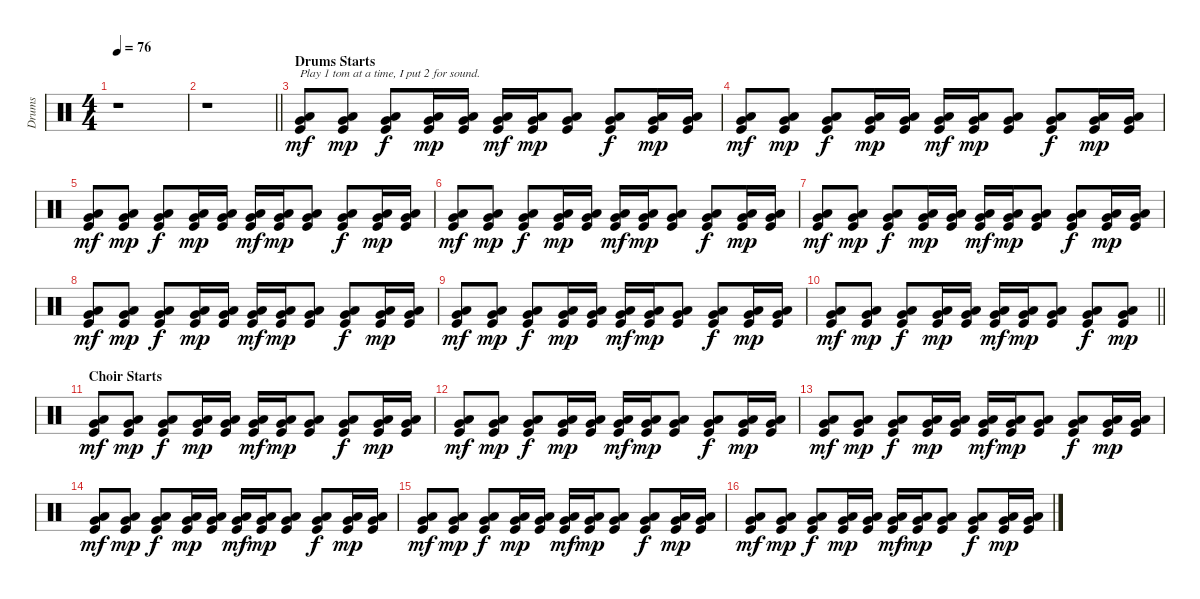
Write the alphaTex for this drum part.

\track ("Drums" "Drums") {instrument percussion}
\staff {score}
\articulation defaults
\ts (4 4)
\tempo 76
\clef neutral
\ks c
r.1{dy mf} |
\barLineRight lightlight
r.1 |
\section ("" "Drums Starts")
("Kick (hit)" "Low Floor Tom (hit)" "Very Low Tom (hit)").8{txt "Play 1 tom at a time, I put 2 for sound."} ("Kick (hit)" "Low Floor Tom (hit)" "Very Low Tom (hit)").8{dy mp} ("Kick (hit)" "Very Low Tom (hit)" "Low Tom (hit)").8{dy f} ("Kick (hit)" "Low Floor Tom (hit)" "Very Low Tom (hit)").16{dy mp} ("Kick (hit)" "Very Low Tom (hit)" "Low Tom (hit)").16 ("Kick (hit)" "Low Floor Tom (hit)" "Very Low Tom (hit)").16{dy mf} ("Kick (hit)" "Very Low Tom (hit)" "Low Tom (hit)").16{dy mp} ("Kick (hit)" "Low Floor Tom (hit)" "Very Low Tom (hit)").8 ("Kick (hit)" "Very Low Tom (hit)" "Low Tom (hit)").8{dy f} ("Kick (hit)" "Low Floor Tom (hit)" "Very Low Tom (hit)").16{dy mp} ("Kick (hit)" "Very Low Tom (hit)" "Low Tom (hit)").16 |
("Kick (hit)" "Low Floor Tom (hit)" "Very Low Tom (hit)").8{dy mf} ("Kick (hit)" "Low Floor Tom (hit)" "Very Low Tom (hit)").8{dy mp} ("Kick (hit)" "Very Low Tom (hit)" "Low Tom (hit)").8{dy f} ("Kick (hit)" "Low Floor Tom (hit)" "Very Low Tom (hit)").16{dy mp} ("Kick (hit)" "Very Low Tom (hit)" "Low Tom (hit)").16 ("Kick (hit)" "Low Floor Tom (hit)" "Very Low Tom (hit)").16{dy mf} ("Kick (hit)" "Very Low Tom (hit)" "Low Tom (hit)").16{dy mp} ("Kick (hit)" "Low Floor Tom (hit)" "Very Low Tom (hit)").8 ("Kick (hit)" "Very Low Tom (hit)" "Low Tom (hit)").8{dy f} ("Kick (hit)" "Low Floor Tom (hit)" "Very Low Tom (hit)").16{dy mp} ("Kick (hit)" "Very Low Tom (hit)" "Low Tom (hit)").16 |
("Kick (hit)" "Low Floor Tom (hit)" "Very Low Tom (hit)").8{dy mf} ("Kick (hit)" "Low Floor Tom (hit)" "Very Low Tom (hit)").8{dy mp} ("Kick (hit)" "Very Low Tom (hit)" "Low Tom (hit)").8{dy f} ("Kick (hit)" "Low Floor Tom (hit)" "Very Low Tom (hit)").16{dy mp} ("Kick (hit)" "Very Low Tom (hit)" "Low Tom (hit)").16 ("Kick (hit)" "Low Floor Tom (hit)" "Very Low Tom (hit)").16{dy mf} ("Kick (hit)" "Very Low Tom (hit)" "Low Tom (hit)").16{dy mp} ("Kick (hit)" "Low Floor Tom (hit)" "Very Low Tom (hit)").8 ("Kick (hit)" "Very Low Tom (hit)" "Low Tom (hit)").8{dy f} ("Kick (hit)" "Low Floor Tom (hit)" "Very Low Tom (hit)").16{dy mp} ("Kick (hit)" "Very Low Tom (hit)" "Low Tom (hit)").16 |
("Kick (hit)" "Low Floor Tom (hit)" "Very Low Tom (hit)").8{dy mf} ("Kick (hit)" "Low Floor Tom (hit)" "Very Low Tom (hit)").8{dy mp} ("Kick (hit)" "Very Low Tom (hit)" "Low Tom (hit)").8{dy f} ("Kick (hit)" "Low Floor Tom (hit)" "Very Low Tom (hit)").16{dy mp} ("Kick (hit)" "Very Low Tom (hit)" "Low Tom (hit)").16 ("Kick (hit)" "Low Floor Tom (hit)" "Very Low Tom (hit)").16{dy mf} ("Kick (hit)" "Very Low Tom (hit)" "Low Tom (hit)").16{dy mp} ("Kick (hit)" "Low Floor Tom (hit)" "Very Low Tom (hit)").8 ("Kick (hit)" "Very Low Tom (hit)" "Low Tom (hit)").8{dy f} ("Kick (hit)" "Low Floor Tom (hit)" "Very Low Tom (hit)").16{dy mp} ("Kick (hit)" "Very Low Tom (hit)" "Low Tom (hit)").16 |
("Kick (hit)" "Low Floor Tom (hit)" "Very Low Tom (hit)").8{dy mf} ("Kick (hit)" "Low Floor Tom (hit)" "Very Low Tom (hit)").8{dy mp} ("Kick (hit)" "Very Low Tom (hit)" "Low Tom (hit)").8{dy f} ("Kick (hit)" "Low Floor Tom (hit)" "Very Low Tom (hit)").16{dy mp} ("Kick (hit)" "Very Low Tom (hit)" "Low Tom (hit)").16 ("Kick (hit)" "Low Floor Tom (hit)" "Very Low Tom (hit)").16{dy mf} ("Kick (hit)" "Very Low Tom (hit)" "Low Tom (hit)").16{dy mp} ("Kick (hit)" "Low Floor Tom (hit)" "Very Low Tom (hit)").8 ("Kick (hit)" "Very Low Tom (hit)" "Low Tom (hit)").8{dy f} ("Kick (hit)" "Low Floor Tom (hit)" "Very Low Tom (hit)").16{dy mp} ("Kick (hit)" "Very Low Tom (hit)" "Low Tom (hit)").16 |
("Kick (hit)" "Low Floor Tom (hit)" "Very Low Tom (hit)").8{dy mf} ("Kick (hit)" "Low Floor Tom (hit)" "Very Low Tom (hit)").8{dy mp} ("Kick (hit)" "Very Low Tom (hit)" "Low Tom (hit)").8{dy f} ("Kick (hit)" "Low Floor Tom (hit)" "Very Low Tom (hit)").16{dy mp} ("Kick (hit)" "Very Low Tom (hit)" "Low Tom (hit)").16 ("Kick (hit)" "Low Floor Tom (hit)" "Very Low Tom (hit)").16{dy mf} ("Kick (hit)" "Very Low Tom (hit)" "Low Tom (hit)").16{dy mp} ("Kick (hit)" "Low Floor Tom (hit)" "Very Low Tom (hit)").8 ("Kick (hit)" "Very Low Tom (hit)" "Low Tom (hit)").8{dy f} ("Kick (hit)" "Low Floor Tom (hit)" "Very Low Tom (hit)").16{dy mp} ("Kick (hit)" "Very Low Tom (hit)" "Low Tom (hit)").16 |
("Kick (hit)" "Low Floor Tom (hit)" "Very Low Tom (hit)").8{dy mf} ("Kick (hit)" "Low Floor Tom (hit)" "Very Low Tom (hit)").8{dy mp} ("Kick (hit)" "Very Low Tom (hit)" "Low Tom (hit)").8{dy f} ("Kick (hit)" "Low Floor Tom (hit)" "Very Low Tom (hit)").16{dy mp} ("Kick (hit)" "Very Low Tom (hit)" "Low Tom (hit)").16 ("Kick (hit)" "Low Floor Tom (hit)" "Very Low Tom (hit)").16{dy mf} ("Kick (hit)" "Very Low Tom (hit)" "Low Tom (hit)").16{dy mp} ("Kick (hit)" "Low Floor Tom (hit)" "Very Low Tom (hit)").8 ("Kick (hit)" "Very Low Tom (hit)" "Low Tom (hit)").8{dy f} ("Kick (hit)" "Low Floor Tom (hit)" "Very Low Tom (hit)").16{dy mp} ("Kick (hit)" "Very Low Tom (hit)" "Low Tom (hit)").16 |
\barLineRight lightlight
("Kick (hit)" "Low Floor Tom (hit)" "Very Low Tom (hit)").8{dy mf} ("Kick (hit)" "Low Floor Tom (hit)" "Very Low Tom (hit)").8{dy mp} ("Kick (hit)" "Very Low Tom (hit)" "Low Tom (hit)").8{dy f} ("Kick (hit)" "Low Floor Tom (hit)" "Very Low Tom (hit)").16{dy mp} ("Kick (hit)" "Very Low Tom (hit)" "Low Tom (hit)").16 ("Kick (hit)" "Low Floor Tom (hit)" "Very Low Tom (hit)").16{dy mf} ("Kick (hit)" "Very Low Tom (hit)" "Low Tom (hit)").16{dy mp} ("Kick (hit)" "Low Floor Tom (hit)" "Very Low Tom (hit)").8 ("Kick (hit)" "Very Low Tom (hit)" "Low Tom (hit)").8{dy f} ("Kick (hit)" "Low Floor Tom (hit)" "Very Low Tom (hit)").8{dy mp} |
\section ("" "Choir Starts")
("Kick (hit)" "Low Floor Tom (hit)" "Very Low Tom (hit)").8{dy mf} ("Kick (hit)" "Low Floor Tom (hit)" "Very Low Tom (hit)").8{dy mp} ("Kick (hit)" "Very Low Tom (hit)" "Low Tom (hit)").8{dy f} ("Kick (hit)" "Low Floor Tom (hit)" "Very Low Tom (hit)").16{dy mp} ("Kick (hit)" "Very Low Tom (hit)" "Low Tom (hit)").16 ("Kick (hit)" "Low Floor Tom (hit)" "Very Low Tom (hit)").16{dy mf} ("Kick (hit)" "Very Low Tom (hit)" "Low Tom (hit)").16{dy mp} ("Kick (hit)" "Low Floor Tom (hit)" "Very Low Tom (hit)").8 ("Kick (hit)" "Very Low Tom (hit)" "Low Tom (hit)").8{dy f} ("Kick (hit)" "Low Floor Tom (hit)" "Very Low Tom (hit)").16{dy mp} ("Kick (hit)" "Very Low Tom (hit)" "Low Tom (hit)").16 |
("Kick (hit)" "Low Floor Tom (hit)" "Very Low Tom (hit)").8{dy mf} ("Kick (hit)" "Low Floor Tom (hit)" "Very Low Tom (hit)").8{dy mp} ("Kick (hit)" "Very Low Tom (hit)" "Low Tom (hit)").8{dy f} ("Kick (hit)" "Low Floor Tom (hit)" "Very Low Tom (hit)").16{dy mp} ("Kick (hit)" "Very Low Tom (hit)" "Low Tom (hit)").16 ("Kick (hit)" "Low Floor Tom (hit)" "Very Low Tom (hit)").16{dy mf} ("Kick (hit)" "Very Low Tom (hit)" "Low Tom (hit)").16{dy mp} ("Kick (hit)" "Low Floor Tom (hit)" "Very Low Tom (hit)").8 ("Kick (hit)" "Very Low Tom (hit)" "Low Tom (hit)").8{dy f} ("Kick (hit)" "Low Floor Tom (hit)" "Very Low Tom (hit)").16{dy mp} ("Kick (hit)" "Very Low Tom (hit)" "Low Tom (hit)").16 |
("Kick (hit)" "Low Floor Tom (hit)" "Very Low Tom (hit)").8{dy mf} ("Kick (hit)" "Low Floor Tom (hit)" "Very Low Tom (hit)").8{dy mp} ("Kick (hit)" "Very Low Tom (hit)" "Low Tom (hit)").8{dy f} ("Kick (hit)" "Low Floor Tom (hit)" "Very Low Tom (hit)").16{dy mp} ("Kick (hit)" "Very Low Tom (hit)" "Low Tom (hit)").16 ("Kick (hit)" "Low Floor Tom (hit)" "Very Low Tom (hit)").16{dy mf} ("Kick (hit)" "Very Low Tom (hit)" "Low Tom (hit)").16{dy mp} ("Kick (hit)" "Low Floor Tom (hit)" "Very Low Tom (hit)").8 ("Kick (hit)" "Very Low Tom (hit)" "Low Tom (hit)").8{dy f} ("Kick (hit)" "Low Floor Tom (hit)" "Very Low Tom (hit)").16{dy mp} ("Kick (hit)" "Very Low Tom (hit)" "Low Tom (hit)").16 |
("Kick (hit)" "Low Floor Tom (hit)" "Very Low Tom (hit)").8{dy mf} ("Kick (hit)" "Low Floor Tom (hit)" "Very Low Tom (hit)").8{dy mp} ("Kick (hit)" "Very Low Tom (hit)" "Low Tom (hit)").8{dy f} ("Kick (hit)" "Low Floor Tom (hit)" "Very Low Tom (hit)").16{dy mp} ("Kick (hit)" "Very Low Tom (hit)" "Low Tom (hit)").16 ("Kick (hit)" "Low Floor Tom (hit)" "Very Low Tom (hit)").16{dy mf} ("Kick (hit)" "Very Low Tom (hit)" "Low Tom (hit)").16{dy mp} ("Kick (hit)" "Low Floor Tom (hit)" "Very Low Tom (hit)").8 ("Kick (hit)" "Very Low Tom (hit)" "Low Tom (hit)").8{dy f} ("Kick (hit)" "Low Floor Tom (hit)" "Very Low Tom (hit)").16{dy mp} ("Kick (hit)" "Very Low Tom (hit)" "Low Tom (hit)").16 |
("Kick (hit)" "Low Floor Tom (hit)" "Very Low Tom (hit)").8{dy mf} ("Kick (hit)" "Low Floor Tom (hit)" "Very Low Tom (hit)").8{dy mp} ("Kick (hit)" "Very Low Tom (hit)" "Low Tom (hit)").8{dy f} ("Kick (hit)" "Low Floor Tom (hit)" "Very Low Tom (hit)").16{dy mp} ("Kick (hit)" "Very Low Tom (hit)" "Low Tom (hit)").16 ("Kick (hit)" "Low Floor Tom (hit)" "Very Low Tom (hit)").16{dy mf} ("Kick (hit)" "Very Low Tom (hit)" "Low Tom (hit)").16{dy mp} ("Kick (hit)" "Low Floor Tom (hit)" "Very Low Tom (hit)").8 ("Kick (hit)" "Very Low Tom (hit)" "Low Tom (hit)").8{dy f} ("Kick (hit)" "Low Floor Tom (hit)" "Very Low Tom (hit)").16{dy mp} ("Kick (hit)" "Very Low Tom (hit)" "Low Tom (hit)").16 |
("Kick (hit)" "Low Floor Tom (hit)" "Very Low Tom (hit)").8{dy mf} ("Kick (hit)" "Low Floor Tom (hit)" "Very Low Tom (hit)").8{dy mp} ("Kick (hit)" "Very Low Tom (hit)" "Low Tom (hit)").8{dy f} ("Kick (hit)" "Low Floor Tom (hit)" "Very Low Tom (hit)").16{dy mp} ("Kick (hit)" "Very Low Tom (hit)" "Low Tom (hit)").16 ("Kick (hit)" "Low Floor Tom (hit)" "Very Low Tom (hit)").16{dy mf} ("Kick (hit)" "Very Low Tom (hit)" "Low Tom (hit)").16{dy mp} ("Kick (hit)" "Low Floor Tom (hit)" "Very Low Tom (hit)").8 ("Kick (hit)" "Very Low Tom (hit)" "Low Tom (hit)").8{dy f} ("Kick (hit)" "Low Floor Tom (hit)" "Very Low Tom (hit)").16{dy mp} ("Kick (hit)" "Very Low Tom (hit)" "Low Tom (hit)").16
